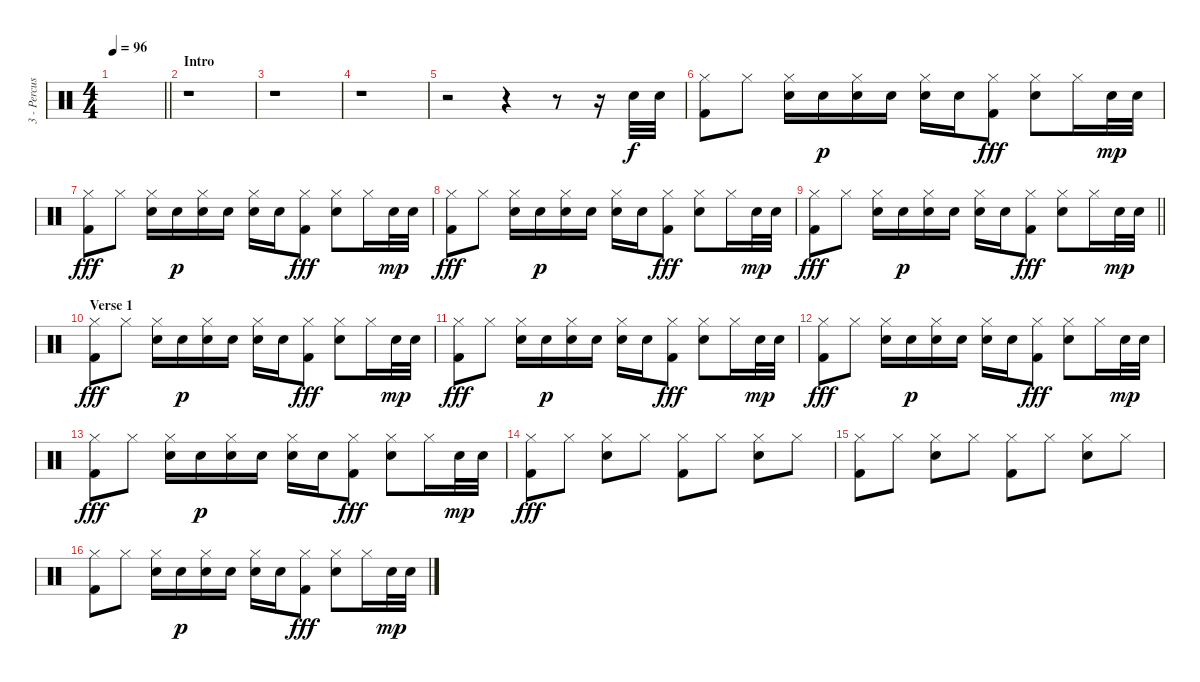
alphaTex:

\track ("3 - Percussion" "3 - Percus") {instrument percussion}
\staff {score}
\articulation defaults
\ts (4 4)
\tempo 96
\clef neutral
\barLineRight lightlight
\ks c
|
\section ("" "Intro")
r.1 |
r.1 |
r.1 |
r.2 r.4 r.8 r.16 "Snare (hit) 2".32 "Snare (hit) 2".32 |
("Hi-Hat (closed)" "Kick (hit) 2").8 "Hi-Hat (closed)".8 ("Hi-Hat (closed)" "Snare (hit) 2").16 "Snare (hit) 2".16{dy p} ("Hi-Hat (closed)" "Snare (hit) 2").16 "Snare (hit) 2".16 ("Hi-Hat (closed)" "Snare (hit) 2").16 "Snare (hit) 2".16 ("Hi-Hat (closed)" "Kick (hit) 2").8{dy fff} ("Hi-Hat (closed)" "Snare (hit) 2").8 "Hi-Hat (closed)".16 "Snare (hit) 2".32{dy mp} "Snare (hit) 2".32 |
("Hi-Hat (closed)" "Kick (hit) 2").8{dy fff} "Hi-Hat (closed)".8 ("Hi-Hat (closed)" "Snare (hit) 2").16 "Snare (hit) 2".16{dy p} ("Hi-Hat (closed)" "Snare (hit) 2").16 "Snare (hit) 2".16 ("Hi-Hat (closed)" "Snare (hit) 2").16 "Snare (hit) 2".16 ("Hi-Hat (closed)" "Kick (hit) 2").8{dy fff} ("Hi-Hat (closed)" "Snare (hit) 2").8 "Hi-Hat (closed)".16 "Snare (hit) 2".32{dy mp} "Snare (hit) 2".32 |
("Hi-Hat (closed)" "Kick (hit) 2").8{dy fff} "Hi-Hat (closed)".8 ("Hi-Hat (closed)" "Snare (hit) 2").16 "Snare (hit) 2".16{dy p} ("Hi-Hat (closed)" "Snare (hit) 2").16 "Snare (hit) 2".16 ("Hi-Hat (closed)" "Snare (hit) 2").16 "Snare (hit) 2".16 ("Hi-Hat (closed)" "Kick (hit) 2").8{dy fff} ("Hi-Hat (closed)" "Snare (hit) 2").8 "Hi-Hat (closed)".16 "Snare (hit) 2".32{dy mp} "Snare (hit) 2".32 |
\barLineRight lightlight
("Hi-Hat (closed)" "Kick (hit) 2").8{dy fff} "Hi-Hat (closed)".8 ("Hi-Hat (closed)" "Snare (hit) 2").16 "Snare (hit) 2".16{dy p} ("Hi-Hat (closed)" "Snare (hit) 2").16 "Snare (hit) 2".16 ("Hi-Hat (closed)" "Snare (hit) 2").16 "Snare (hit) 2".16 ("Hi-Hat (closed)" "Kick (hit) 2").8{dy fff} ("Hi-Hat (closed)" "Snare (hit) 2").8 "Hi-Hat (closed)".16 "Snare (hit) 2".32{dy mp} "Snare (hit) 2".32 |
\section ("" "Verse 1")
("Hi-Hat (closed)" "Kick (hit) 2").8{dy fff} "Hi-Hat (closed)".8 ("Hi-Hat (closed)" "Snare (hit) 2").16 "Snare (hit) 2".16{dy p} ("Hi-Hat (closed)" "Snare (hit) 2").16 "Snare (hit) 2".16 ("Hi-Hat (closed)" "Snare (hit) 2").16 "Snare (hit) 2".16 ("Hi-Hat (closed)" "Kick (hit) 2").8{dy fff} ("Hi-Hat (closed)" "Snare (hit) 2").8 "Hi-Hat (closed)".16 "Snare (hit) 2".32{dy mp} "Snare (hit) 2".32 |
("Hi-Hat (closed)" "Kick (hit) 2").8{dy fff} "Hi-Hat (closed)".8 ("Hi-Hat (closed)" "Snare (hit) 2").16 "Snare (hit) 2".16{dy p} ("Hi-Hat (closed)" "Snare (hit) 2").16 "Snare (hit) 2".16 ("Hi-Hat (closed)" "Snare (hit) 2").16 "Snare (hit) 2".16 ("Hi-Hat (closed)" "Kick (hit) 2").8{dy fff} ("Hi-Hat (closed)" "Snare (hit) 2").8 "Hi-Hat (closed)".16 "Snare (hit) 2".32{dy mp} "Snare (hit) 2".32 |
("Hi-Hat (closed)" "Kick (hit) 2").8{dy fff} "Hi-Hat (closed)".8 ("Hi-Hat (closed)" "Snare (hit) 2").16 "Snare (hit) 2".16{dy p} ("Hi-Hat (closed)" "Snare (hit) 2").16 "Snare (hit) 2".16 ("Hi-Hat (closed)" "Snare (hit) 2").16 "Snare (hit) 2".16 ("Hi-Hat (closed)" "Kick (hit) 2").8{dy fff} ("Hi-Hat (closed)" "Snare (hit) 2").8 "Hi-Hat (closed)".16 "Snare (hit) 2".32{dy mp} "Snare (hit) 2".32 |
("Hi-Hat (closed)" "Kick (hit) 2").8{dy fff} "Hi-Hat (closed)".8 ("Hi-Hat (closed)" "Snare (hit) 2").16 "Snare (hit) 2".16{dy p} ("Hi-Hat (closed)" "Snare (hit) 2").16 "Snare (hit) 2".16 ("Hi-Hat (closed)" "Snare (hit) 2").16 "Snare (hit) 2".16 ("Hi-Hat (closed)" "Kick (hit) 2").8{dy fff} ("Hi-Hat (closed)" "Snare (hit) 2").8 "Hi-Hat (closed)".16 "Snare (hit) 2".32{dy mp} "Snare (hit) 2".32 |
("Hi-Hat (closed)" "Kick (hit) 2").8{dy fff} "Hi-Hat (closed)".8 ("Hi-Hat (closed)" "Snare (hit) 2").8 "Hi-Hat (closed)".8 ("Hi-Hat (closed)" "Kick (hit) 2").8 "Hi-Hat (closed)".8 ("Hi-Hat (closed)" "Snare (hit) 2").8 "Hi-Hat (closed)".8 |
("Hi-Hat (closed)" "Kick (hit) 2").8 "Hi-Hat (closed)".8 ("Hi-Hat (closed)" "Snare (hit) 2").8 "Hi-Hat (closed)".8 ("Hi-Hat (closed)" "Kick (hit) 2").8 "Hi-Hat (closed)".8 ("Hi-Hat (closed)" "Snare (hit) 2").8 "Hi-Hat (closed)".8 |
("Hi-Hat (closed)" "Kick (hit) 2").8 "Hi-Hat (closed)".8 ("Hi-Hat (closed)" "Snare (hit) 2").16 "Snare (hit) 2".16{dy p} ("Hi-Hat (closed)" "Snare (hit) 2").16 "Snare (hit) 2".16 ("Hi-Hat (closed)" "Snare (hit) 2").16 "Snare (hit) 2".16 ("Hi-Hat (closed)" "Kick (hit) 2").8{dy fff} ("Hi-Hat (closed)" "Snare (hit) 2").8 "Hi-Hat (closed)".16 "Snare (hit) 2".32{dy mp} "Snare (hit) 2".32
